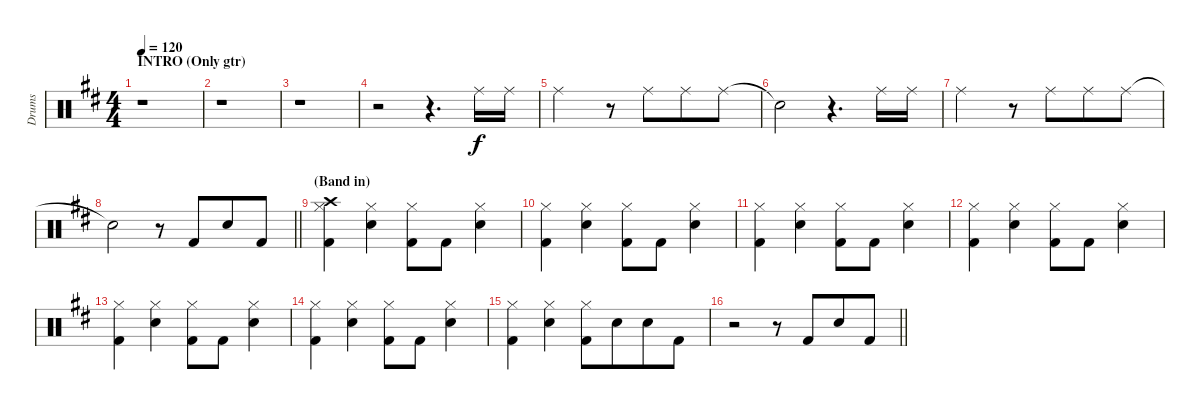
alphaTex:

\track ("Drums" "Drums") {instrument percussion}
\staff {score}
\articulation defaults
\ts (4 4)
\section ("" "INTRO (Only gtr)")
\tempo 120
\clef neutral
\ks d
r.1{dy f} |
r.1 |
r.1 |
r.2 r.4{d} "Ride (middle)".16 "Ride (middle)".16 |
"Ride (middle)".2 r.8 "Ride (middle)".8{beam merge} "Ride (middle)".8 "Ride (middle)".8 |
"Snare (hit)"{t}.2 r.4{d} "Ride (middle)".16 "Ride (middle)".16 |
"Ride (middle)".2 r.8 "Ride (middle)".8{beam merge} "Ride (middle)".8 "Ride (middle)".8 |
\barLineRight lightlight "Snare (hit)"{t}.2
r.8 "Kick (hit) 2".8{beam merge} "Electric Snare (hit)".8 "Kick (hit) 2".8 |
\section ("" "(Band in)")
("Crash high (hit)" "Hi-Hat (closed)" "Kick (hit) 2").4 ("Hi-Hat (closed)" "Electric Snare (hit)").4 ("Hi-Hat (closed)" "Kick (hit) 2").8 "Kick (hit) 2".8 ("Hi-Hat (closed)" "Electric Snare (hit)").4 |
("Hi-Hat (closed)" "Kick (hit) 2").4 ("Hi-Hat (closed)" "Electric Snare (hit)").4 ("Hi-Hat (closed)" "Kick (hit) 2").8 "Kick (hit) 2".8 ("Hi-Hat (closed)" "Electric Snare (hit)").4 |
("Hi-Hat (closed)" "Kick (hit) 2").4 ("Hi-Hat (closed)" "Electric Snare (hit)").4 ("Hi-Hat (closed)" "Kick (hit) 2").8 "Kick (hit) 2".8 ("Hi-Hat (closed)" "Electric Snare (hit)").4 |
("Hi-Hat (closed)" "Kick (hit) 2").4 ("Hi-Hat (closed)" "Electric Snare (hit)").4 ("Hi-Hat (closed)" "Kick (hit) 2").8 "Kick (hit) 2".8 ("Hi-Hat (closed)" "Electric Snare (hit)").4 |
("Hi-Hat (closed)" "Kick (hit) 2").4 ("Hi-Hat (closed)" "Electric Snare (hit)").4 ("Hi-Hat (closed)" "Kick (hit) 2").8 "Kick (hit) 2".8 ("Hi-Hat (closed)" "Electric Snare (hit)").4 |
("Hi-Hat (closed)" "Kick (hit) 2").4 ("Hi-Hat (closed)" "Electric Snare (hit)").4 ("Hi-Hat (closed)" "Kick (hit) 2").8 "Kick (hit) 2".8 ("Hi-Hat (closed)" "Electric Snare (hit)").4 |
("Hi-Hat (closed)" "Kick (hit) 2").4 ("Hi-Hat (closed)" "Electric Snare (hit)").4 ("Hi-Hat (closed)" "Kick (hit) 2").8 "Electric Snare (hit)".8{beam merge} "Electric Snare (hit)".8 "Kick (hit) 2".8 |
\barLineRight lightlight
r.2 r.8 "Kick (hit) 2".8{beam merge} "Electric Snare (hit)".8 "Kick (hit) 2".8
